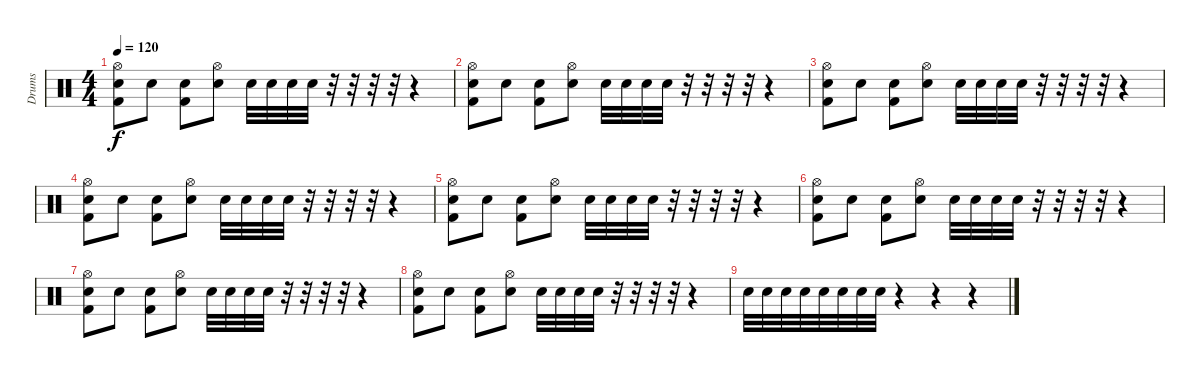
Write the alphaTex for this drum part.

\track ("Drums" "Drums") {instrument percussion}
\staff {score}
\articulation defaults
\ts (4 4)
\tempo 120
\clef neutral
\ks c
("Hi-Hat (open)" "Kick (hit) 2" "Electric Snare (hit)").8{dy f} "Electric Snare (hit)".8 ("Kick (hit) 2" "Electric Snare (hit)").8 ("Hi-Hat (open)" "Electric Snare (hit)").8 "Electric Snare (hit)".32 "Electric Snare (hit)".32 "Electric Snare (hit)".32 "Electric Snare (hit)".32 r.32 r.32 r.32 r.32 r.4 |
("Hi-Hat (open)" "Kick (hit) 2" "Electric Snare (hit)").8 "Electric Snare (hit)".8 ("Kick (hit) 2" "Electric Snare (hit)").8 ("Hi-Hat (open)" "Electric Snare (hit)").8 "Electric Snare (hit)".32 "Electric Snare (hit)".32 "Electric Snare (hit)".32 "Electric Snare (hit)".32 r.32 r.32 r.32 r.32 r.4 |
("Hi-Hat (open)" "Kick (hit) 2" "Electric Snare (hit)").8 "Electric Snare (hit)".8 ("Kick (hit) 2" "Electric Snare (hit)").8 ("Hi-Hat (open)" "Electric Snare (hit)").8 "Electric Snare (hit)".32 "Electric Snare (hit)".32 "Electric Snare (hit)".32 "Electric Snare (hit)".32 r.32 r.32 r.32 r.32 r.4 |
("Hi-Hat (open)" "Kick (hit) 2" "Electric Snare (hit)").8 "Electric Snare (hit)".8 ("Kick (hit) 2" "Electric Snare (hit)").8 ("Hi-Hat (open)" "Electric Snare (hit)").8 "Electric Snare (hit)".32 "Electric Snare (hit)".32 "Electric Snare (hit)".32 "Electric Snare (hit)".32 r.32 r.32 r.32 r.32 r.4 |
("Hi-Hat (open)" "Kick (hit) 2" "Electric Snare (hit)").8 "Electric Snare (hit)".8 ("Kick (hit) 2" "Electric Snare (hit)").8 ("Hi-Hat (open)" "Electric Snare (hit)").8 "Electric Snare (hit)".32 "Electric Snare (hit)".32 "Electric Snare (hit)".32 "Electric Snare (hit)".32 r.32 r.32 r.32 r.32 r.4 |
("Hi-Hat (open)" "Kick (hit) 2" "Electric Snare (hit)").8 "Electric Snare (hit)".8 ("Kick (hit) 2" "Electric Snare (hit)").8 ("Hi-Hat (open)" "Electric Snare (hit)").8 "Electric Snare (hit)".32 "Electric Snare (hit)".32 "Electric Snare (hit)".32 "Electric Snare (hit)".32 r.32 r.32 r.32 r.32 r.4 |
("Hi-Hat (open)" "Kick (hit) 2" "Electric Snare (hit)").8 "Electric Snare (hit)".8 ("Kick (hit) 2" "Electric Snare (hit)").8 ("Hi-Hat (open)" "Electric Snare (hit)").8 "Electric Snare (hit)".32 "Electric Snare (hit)".32 "Electric Snare (hit)".32 "Electric Snare (hit)".32 r.32 r.32 r.32 r.32 r.4 |
("Hi-Hat (open)" "Kick (hit) 2" "Electric Snare (hit)").8 "Electric Snare (hit)".8 ("Kick (hit) 2" "Electric Snare (hit)").8 ("Hi-Hat (open)" "Electric Snare (hit)").8 "Electric Snare (hit)".32 "Electric Snare (hit)".32 "Electric Snare (hit)".32 "Electric Snare (hit)".32 r.32 r.32 r.32 r.32 r.4 |
"Electric Snare (hit)".32 "Electric Snare (hit)".32 "Electric Snare (hit)".32 "Electric Snare (hit)".32 "Electric Snare (hit)".32 "Electric Snare (hit)".32 "Electric Snare (hit)".32 "Electric Snare (hit)".32 r.4 r.4 r.4
